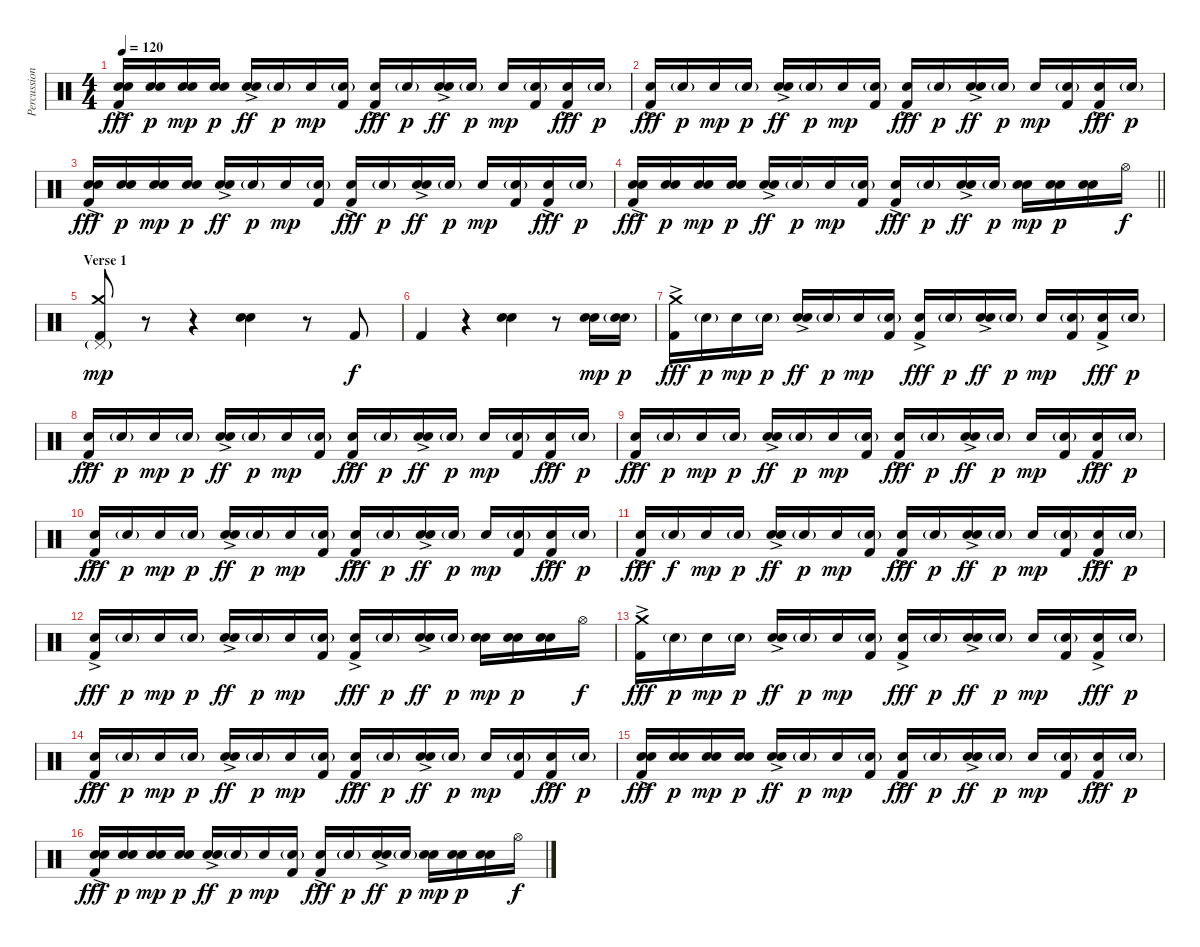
\track ("Percussion" "Percussion") {instrument percussion}
\staff {score}
\articulation defaults
\ts (4 4)
\tempo 120
\clef neutral
\ks c
("Electric Snare (hit)" "Snare (hit) 2" "Kick (hit) 2"{ac}).16{dy fff} ("Electric Snare (hit)" "Snare (hit) 2").16{dy p} ("Electric Snare (hit)" "Snare (hit) 2").16{dy mp} ("Electric Snare (hit)" "Snare (hit) 2").16{dy p} ("Electric Snare (hit)"{ac} "Snare (hit) 2").16{dy ff} "Electric Snare (hit)"{g}.16{dy p} "Electric Snare (hit)".16{dy mp} ("Electric Snare (hit)"{g} "Kick (hit) 2").16 ("Electric Snare (hit)" "Kick (hit) 2"{ac}).16{dy fff} "Electric Snare (hit)"{g}.16{dy p} ("Electric Snare (hit)"{ac} "Snare (hit) 2").16{dy ff} "Electric Snare (hit)"{g}.16{dy p} "Electric Snare (hit)".16{dy mp} ("Electric Snare (hit)"{g} "Kick (hit) 2").16 ("Electric Snare (hit)" "Kick (hit) 2"{ac}).16{dy fff} "Electric Snare (hit)"{g}.16{dy p} |
("Electric Snare (hit)" "Kick (hit) 2"{ac}).16{dy fff} "Electric Snare (hit)"{g}.16{dy p} "Electric Snare (hit)".16{dy mp} "Electric Snare (hit)"{g}.16{dy p} ("Electric Snare (hit)"{ac} "Snare (hit) 2").16{dy ff} "Electric Snare (hit)"{g}.16{dy p} "Electric Snare (hit)".16{dy mp} ("Electric Snare (hit)"{g} "Kick (hit) 2").16 ("Electric Snare (hit)" "Kick (hit) 2"{ac}).16{dy fff} "Electric Snare (hit)"{g}.16{dy p} ("Electric Snare (hit)"{ac} "Snare (hit) 2").16{dy ff} "Electric Snare (hit)"{g}.16{dy p} "Electric Snare (hit)".16{dy mp} ("Electric Snare (hit)"{g} "Kick (hit) 2").16 ("Electric Snare (hit)" "Kick (hit) 2"{ac}).16{dy fff} "Electric Snare (hit)"{g}.16{dy p} |
("Electric Snare (hit)" "Snare (hit) 2" "Kick (hit) 2"{ac}).16{dy fff} ("Electric Snare (hit)" "Snare (hit) 2").16{dy p} ("Electric Snare (hit)" "Snare (hit) 2").16{dy mp} ("Electric Snare (hit)" "Snare (hit) 2").16{dy p} ("Electric Snare (hit)"{ac} "Snare (hit) 2").16{dy ff} "Electric Snare (hit)"{g}.16{dy p} "Electric Snare (hit)".16{dy mp} ("Electric Snare (hit)"{g} "Kick (hit) 2").16 ("Electric Snare (hit)" "Kick (hit) 2"{ac}).16{dy fff} "Electric Snare (hit)"{g}.16{dy p} ("Electric Snare (hit)"{ac} "Snare (hit) 2").16{dy ff} "Electric Snare (hit)"{g}.16{dy p} "Electric Snare (hit)".16{dy mp} ("Electric Snare (hit)"{g} "Kick (hit) 2").16 ("Electric Snare (hit)" "Kick (hit) 2"{ac}).16{dy fff} "Electric Snare (hit)"{g}.16{dy p} |
\barLineRight lightlight
("Electric Snare (hit)" "Snare (hit) 2" "Kick (hit) 2"{ac}).16{dy fff} ("Electric Snare (hit)" "Snare (hit) 2").16{dy p} ("Electric Snare (hit)" "Snare (hit) 2").16{dy mp} ("Electric Snare (hit)" "Snare (hit) 2").16{dy p} ("Electric Snare (hit)"{ac} "Snare (hit) 2").16{dy ff} "Electric Snare (hit)"{g}.16{dy p} "Electric Snare (hit)".16{dy mp} ("Electric Snare (hit)"{g} "Kick (hit) 2").16 ("Electric Snare (hit)" "Kick (hit) 2"{ac}).16{dy fff} "Electric Snare (hit)"{g}.16{dy p} ("Electric Snare (hit)"{ac} "Snare (hit) 2").16{dy ff} "Electric Snare (hit)"{g}.16{dy p} ("Electric Snare (hit)" "Snare (hit) 2").16{dy mp} ("Electric Snare (hit)" "Snare (hit) 2").16{dy p} ("Electric Snare (hit)" "Snare (hit) 2").16 "Hi-Hat (open)".16{dy f} |
\section ("" "Verse 1")
("Crash medium (hit)" "Pedal Hi-Hat (hit)"{g} "Kick (hit) 2").8{dy mp} r.8 r.4 ("Electric Snare (hit)" "Snare (hit) 2").4 r.8 "Kick (hit) 2".8{dy f} |
"Kick (hit) 2".4 r.4 ("Electric Snare (hit)" "Snare (hit) 2").4 r.8 ("Electric Snare (hit)" "Snare (hit) 2").16{dy mp} ("Electric Snare (hit)"{g} "Snare (hit) 2").16{dy p} |
("Crash medium (hit)" "Kick (hit) 2"{ac}).16{dy fff} "Electric Snare (hit)"{g}.16{dy p} "Electric Snare (hit)".16{dy mp} "Electric Snare (hit)"{g}.16{dy p} ("Electric Snare (hit)"{ac} "Snare (hit) 2").16{dy ff} "Electric Snare (hit)"{g}.16{dy p} "Electric Snare (hit)".16{dy mp} ("Electric Snare (hit)"{g} "Kick (hit) 2").16 ("Electric Snare (hit)" "Kick (hit) 2"{ac}).16{dy fff} "Electric Snare (hit)"{g}.16{dy p} ("Electric Snare (hit)"{ac} "Snare (hit) 2").16{dy ff} "Electric Snare (hit)"{g}.16{dy p} "Electric Snare (hit)".16{dy mp} ("Electric Snare (hit)"{g} "Kick (hit) 2").16 ("Electric Snare (hit)" "Kick (hit) 2"{ac}).16{dy fff} "Electric Snare (hit)"{g}.16{dy p} |
("Electric Snare (hit)" "Kick (hit) 2"{ac}).16{dy fff} "Electric Snare (hit)"{g}.16{dy p} "Electric Snare (hit)".16{dy mp} "Electric Snare (hit)"{g}.16{dy p} ("Electric Snare (hit)"{ac} "Snare (hit) 2").16{dy ff} "Electric Snare (hit)"{g}.16{dy p} "Electric Snare (hit)".16{dy mp} ("Electric Snare (hit)"{g} "Kick (hit) 2").16 ("Electric Snare (hit)" "Kick (hit) 2"{ac}).16{dy fff} "Electric Snare (hit)"{g}.16{dy p} ("Electric Snare (hit)"{ac} "Snare (hit) 2").16{dy ff} "Electric Snare (hit)"{g}.16{dy p} "Electric Snare (hit)".16{dy mp} ("Electric Snare (hit)"{g} "Kick (hit) 2").16 ("Electric Snare (hit)" "Kick (hit) 2"{ac}).16{dy fff} "Electric Snare (hit)"{g}.16{dy p} |
("Electric Snare (hit)" "Kick (hit) 2"{ac}).16{dy fff} "Electric Snare (hit)"{g}.16{dy p} "Electric Snare (hit)".16{dy mp} "Electric Snare (hit)"{g}.16{dy p} ("Electric Snare (hit)"{ac} "Snare (hit) 2").16{dy ff} "Electric Snare (hit)"{g}.16{dy p} "Electric Snare (hit)".16{dy mp} ("Electric Snare (hit)"{g} "Kick (hit) 2").16 ("Electric Snare (hit)" "Kick (hit) 2"{ac}).16{dy fff} "Electric Snare (hit)"{g}.16{dy p} ("Electric Snare (hit)"{ac} "Snare (hit) 2").16{dy ff} "Electric Snare (hit)"{g}.16{dy p} "Electric Snare (hit)".16{dy mp} ("Electric Snare (hit)"{g} "Kick (hit) 2").16 ("Electric Snare (hit)" "Kick (hit) 2"{ac}).16{dy fff} "Electric Snare (hit)"{g}.16{dy p} |
("Electric Snare (hit)" "Kick (hit) 2"{ac}).16{dy fff} "Electric Snare (hit)"{g}.16{dy p} "Electric Snare (hit)".16{dy mp} "Electric Snare (hit)"{g}.16{dy p} ("Electric Snare (hit)"{ac} "Snare (hit) 2").16{dy ff} "Electric Snare (hit)"{g}.16{dy p} "Electric Snare (hit)".16{dy mp} ("Electric Snare (hit)"{g} "Kick (hit) 2").16 ("Electric Snare (hit)" "Kick (hit) 2"{ac}).16{dy fff} "Electric Snare (hit)"{g}.16{dy p} ("Electric Snare (hit)"{ac} "Snare (hit) 2").16{dy ff} "Electric Snare (hit)"{g}.16{dy p} "Electric Snare (hit)".16{dy mp} ("Electric Snare (hit)"{g} "Kick (hit) 2").16 ("Electric Snare (hit)" "Kick (hit) 2"{ac}).16{dy fff} "Electric Snare (hit)"{g}.16{dy p} |
("Electric Snare (hit)"{ac} "Kick (hit) 2"{ac}).16{dy fff} "Electric Snare (hit)"{g}.16{dy f} "Electric Snare (hit)".16{dy mp} "Electric Snare (hit)"{g}.16{dy p} ("Electric Snare (hit)"{ac} "Snare (hit) 2").16{dy ff} "Electric Snare (hit)"{g}.16{dy p} "Electric Snare (hit)".16{dy mp} ("Electric Snare (hit)"{g} "Kick (hit) 2").16 ("Electric Snare (hit)" "Kick (hit) 2"{ac}).16{dy fff} "Electric Snare (hit)"{g}.16{dy p} ("Electric Snare (hit)"{ac} "Snare (hit) 2").16{dy ff} "Electric Snare (hit)"{g}.16{dy p} "Electric Snare (hit)".16{dy mp} ("Electric Snare (hit)"{g} "Kick (hit) 2").16 ("Electric Snare (hit)" "Kick (hit) 2"{ac}).16{dy fff} "Electric Snare (hit)"{g}.16{dy p} |
("Electric Snare (hit)" "Kick (hit) 2"{ac}).16{dy fff} "Electric Snare (hit)"{g}.16{dy p} "Electric Snare (hit)".16{dy mp} "Electric Snare (hit)"{g}.16{dy p} ("Electric Snare (hit)"{ac} "Snare (hit) 2").16{dy ff} "Electric Snare (hit)"{g}.16{dy p} "Electric Snare (hit)".16{dy mp} ("Electric Snare (hit)"{g} "Kick (hit) 2").16 ("Electric Snare (hit)" "Kick (hit) 2"{ac}).16{dy fff} "Electric Snare (hit)"{g}.16{dy p} ("Electric Snare (hit)"{ac} "Snare (hit) 2").16{dy ff} "Electric Snare (hit)"{g}.16{dy p} ("Electric Snare (hit)" "Snare (hit) 2").16{dy mp} ("Electric Snare (hit)" "Snare (hit) 2").16{dy p} ("Electric Snare (hit)" "Snare (hit) 2").16 "Hi-Hat (open)".16{dy f} |
("Crash medium (hit)" "Kick (hit) 2"{ac}).16{dy fff} "Electric Snare (hit)"{g}.16{dy p} "Electric Snare (hit)".16{dy mp} "Electric Snare (hit)"{g}.16{dy p} ("Electric Snare (hit)"{ac} "Snare (hit) 2").16{dy ff} "Electric Snare (hit)"{g}.16{dy p} "Electric Snare (hit)".16{dy mp} ("Electric Snare (hit)"{g} "Kick (hit) 2").16 ("Electric Snare (hit)" "Kick (hit) 2"{ac}).16{dy fff} "Electric Snare (hit)"{g}.16{dy p} ("Electric Snare (hit)"{ac} "Snare (hit) 2").16{dy ff} "Electric Snare (hit)"{g}.16{dy p} "Electric Snare (hit)".16{dy mp} ("Electric Snare (hit)"{g} "Kick (hit) 2").16 ("Electric Snare (hit)" "Kick (hit) 2"{ac}).16{dy fff} "Electric Snare (hit)"{g}.16{dy p} |
("Electric Snare (hit)" "Kick (hit) 2"{ac}).16{dy fff} "Electric Snare (hit)"{g}.16{dy p} "Electric Snare (hit)".16{dy mp} "Electric Snare (hit)"{g}.16{dy p} ("Electric Snare (hit)"{ac} "Snare (hit) 2").16{dy ff} "Electric Snare (hit)"{g}.16{dy p} "Electric Snare (hit)".16{dy mp} ("Electric Snare (hit)"{g} "Kick (hit) 2").16 ("Electric Snare (hit)" "Kick (hit) 2"{ac}).16{dy fff} "Electric Snare (hit)"{g}.16{dy p} ("Electric Snare (hit)"{ac} "Snare (hit) 2").16{dy ff} "Electric Snare (hit)"{g}.16{dy p} "Electric Snare (hit)".16{dy mp} ("Electric Snare (hit)"{g} "Kick (hit) 2").16 ("Electric Snare (hit)" "Kick (hit) 2"{ac}).16{dy fff} "Electric Snare (hit)"{g}.16{dy p} |
("Electric Snare (hit)" "Snare (hit) 2" "Kick (hit) 2"{ac}).16{dy fff} ("Electric Snare (hit)" "Snare (hit) 2").16{dy p} ("Electric Snare (hit)" "Snare (hit) 2").16{dy mp} ("Electric Snare (hit)" "Snare (hit) 2").16{dy p} ("Electric Snare (hit)"{ac} "Snare (hit) 2").16{dy ff} "Electric Snare (hit)"{g}.16{dy p} "Electric Snare (hit)".16{dy mp} ("Electric Snare (hit)"{g} "Kick (hit) 2").16 ("Electric Snare (hit)" "Kick (hit) 2"{ac}).16{dy fff} "Electric Snare (hit)"{g}.16{dy p} ("Electric Snare (hit)"{ac} "Snare (hit) 2").16{dy ff} "Electric Snare (hit)"{g}.16{dy p} "Electric Snare (hit)".16{dy mp} ("Electric Snare (hit)"{g} "Kick (hit) 2").16 ("Electric Snare (hit)" "Kick (hit) 2"{ac}).16{dy fff} "Electric Snare (hit)"{g}.16{dy p} |
("Electric Snare (hit)" "Snare (hit) 2" "Kick (hit) 2"{ac}).16{dy fff} ("Electric Snare (hit)" "Snare (hit) 2").16{dy p} ("Electric Snare (hit)" "Snare (hit) 2").16{dy mp} ("Electric Snare (hit)" "Snare (hit) 2").16{dy p} ("Electric Snare (hit)"{ac} "Snare (hit) 2").16{dy ff} "Electric Snare (hit)"{g}.16{dy p} "Electric Snare (hit)".16{dy mp} ("Electric Snare (hit)"{g} "Kick (hit) 2").16 ("Electric Snare (hit)" "Kick (hit) 2"{ac}).16{dy fff} "Electric Snare (hit)"{g}.16{dy p} ("Electric Snare (hit)"{ac} "Snare (hit) 2").16{dy ff} "Electric Snare (hit)"{g}.16{dy p} ("Electric Snare (hit)" "Snare (hit) 2").16{dy mp} ("Electric Snare (hit)" "Snare (hit) 2").16{dy p} ("Electric Snare (hit)" "Snare (hit) 2").16 "Hi-Hat (open)".16{dy f}
